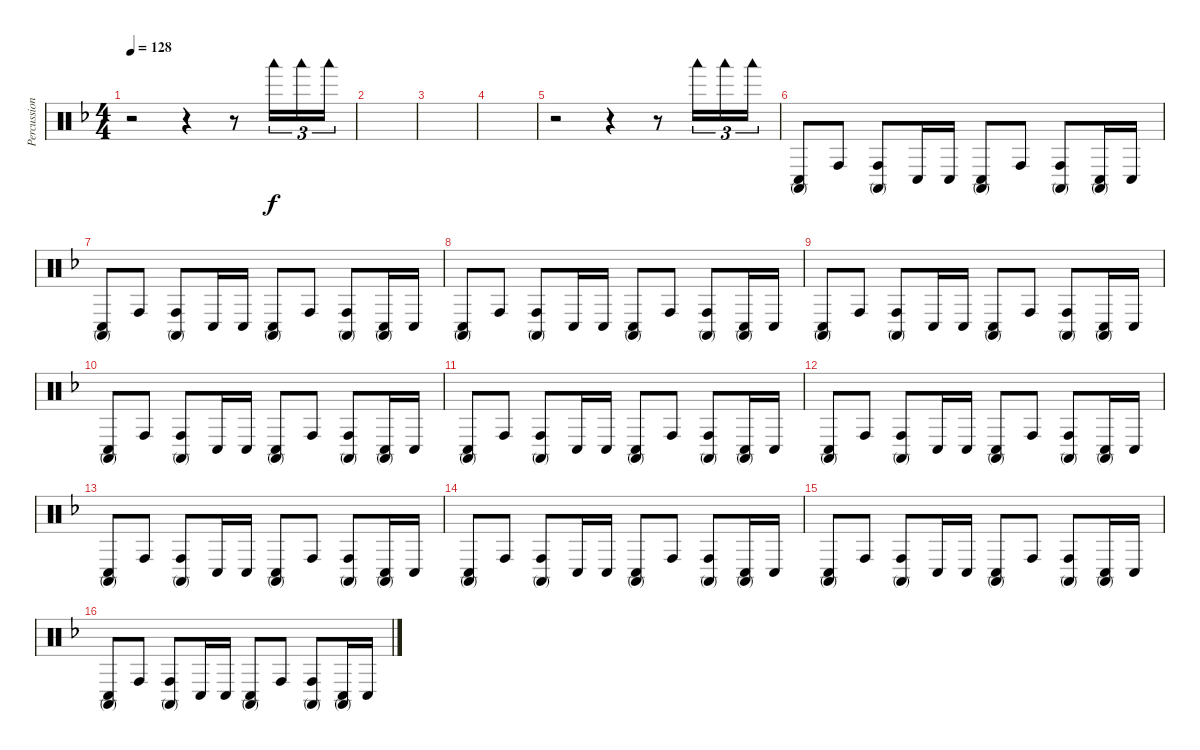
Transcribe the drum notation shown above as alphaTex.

\track ("Percussion" "Percussion") {instrument percussion}
\staff {score}
\articulation defaults
\ts (4 4)
\tempo 128
\clef neutral
\ks f
r.2{dy f} r.4 r.8 "Woodblock low (hit)".16{tu (3 2)} "Woodblock low (hit)".16{tu (3 2)} "Woodblock low (hit)".16{tu (3 2)} |
|
|
|
r.2 r.4 r.8 "Woodblock low (hit)".16{tu (3 2)} "Woodblock low (hit)".16{tu (3 2)} "Woodblock low (hit)".16{tu (3 2)} |
("Conga high (mute)" "Conga low (hit)").8 "Conga high (hit)".8 ("Conga high (mute)" "Conga high (hit)").8 "Conga low (hit)".16 "Conga low (hit)".16 ("Conga high (mute)" "Conga low (hit)").8 "Conga high (hit)".8 ("Conga high (mute)" "Conga high (hit)").8 ("Conga high (mute)" "Conga low (hit)").16 "Conga low (hit)".16 |
("Conga high (mute)" "Conga low (hit)").8 "Conga high (hit)".8 ("Conga high (mute)" "Conga high (hit)").8 "Conga low (hit)".16 "Conga low (hit)".16 ("Conga high (mute)" "Conga low (hit)").8 "Conga high (hit)".8 ("Conga high (mute)" "Conga high (hit)").8 ("Conga high (mute)" "Conga low (hit)").16 "Conga low (hit)".16 |
("Conga high (mute)" "Conga low (hit)").8 "Conga high (hit)".8 ("Conga high (mute)" "Conga high (hit)").8 "Conga low (hit)".16 "Conga low (hit)".16 ("Conga high (mute)" "Conga low (hit)").8 "Conga high (hit)".8 ("Conga high (mute)" "Conga high (hit)").8 ("Conga high (mute)" "Conga low (hit)").16 "Conga low (hit)".16 |
("Conga high (mute)" "Conga low (hit)").8 "Conga high (hit)".8 ("Conga high (mute)" "Conga high (hit)").8 "Conga low (hit)".16 "Conga low (hit)".16 ("Conga high (mute)" "Conga low (hit)").8 "Conga high (hit)".8 ("Conga high (mute)" "Conga high (hit)").8 ("Conga high (mute)" "Conga low (hit)").16 "Conga low (hit)".16 |
("Conga high (mute)" "Conga low (hit)").8 "Conga high (hit)".8 ("Conga high (mute)" "Conga high (hit)").8 "Conga low (hit)".16 "Conga low (hit)".16 ("Conga high (mute)" "Conga low (hit)").8 "Conga high (hit)".8 ("Conga high (mute)" "Conga high (hit)").8 ("Conga high (mute)" "Conga low (hit)").16 "Conga low (hit)".16 |
("Conga high (mute)" "Conga low (hit)").8 "Conga high (hit)".8 ("Conga high (mute)" "Conga high (hit)").8 "Conga low (hit)".16 "Conga low (hit)".16 ("Conga high (mute)" "Conga low (hit)").8 "Conga high (hit)".8 ("Conga high (mute)" "Conga high (hit)").8 ("Conga high (mute)" "Conga low (hit)").16 "Conga low (hit)".16 |
("Conga high (mute)" "Conga low (hit)").8 "Conga high (hit)".8 ("Conga high (mute)" "Conga high (hit)").8 "Conga low (hit)".16 "Conga low (hit)".16 ("Conga high (mute)" "Conga low (hit)").8 "Conga high (hit)".8 ("Conga high (mute)" "Conga high (hit)").8 ("Conga high (mute)" "Conga low (hit)").16 "Conga low (hit)".16 |
("Conga high (mute)" "Conga low (hit)").8 "Conga high (hit)".8 ("Conga high (mute)" "Conga high (hit)").8 "Conga low (hit)".16 "Conga low (hit)".16 ("Conga high (mute)" "Conga low (hit)").8 "Conga high (hit)".8 ("Conga high (mute)" "Conga high (hit)").8 ("Conga high (mute)" "Conga low (hit)").16 "Conga low (hit)".16 |
("Conga high (mute)" "Conga low (hit)").8 "Conga high (hit)".8 ("Conga high (mute)" "Conga high (hit)").8 "Conga low (hit)".16 "Conga low (hit)".16 ("Conga high (mute)" "Conga low (hit)").8 "Conga high (hit)".8 ("Conga high (mute)" "Conga high (hit)").8 ("Conga high (mute)" "Conga low (hit)").16 "Conga low (hit)".16 |
("Conga high (mute)" "Conga low (hit)").8 "Conga high (hit)".8 ("Conga high (mute)" "Conga high (hit)").8 "Conga low (hit)".16 "Conga low (hit)".16 ("Conga high (mute)" "Conga low (hit)").8 "Conga high (hit)".8 ("Conga high (mute)" "Conga high (hit)").8 ("Conga high (mute)" "Conga low (hit)").16 "Conga low (hit)".16 |
("Conga high (mute)" "Conga low (hit)").8 "Conga high (hit)".8 ("Conga high (mute)" "Conga high (hit)").8 "Conga low (hit)".16 "Conga low (hit)".16 ("Conga high (mute)" "Conga low (hit)").8 "Conga high (hit)".8 ("Conga high (mute)" "Conga high (hit)").8 ("Conga high (mute)" "Conga low (hit)").16 "Conga low (hit)".16
